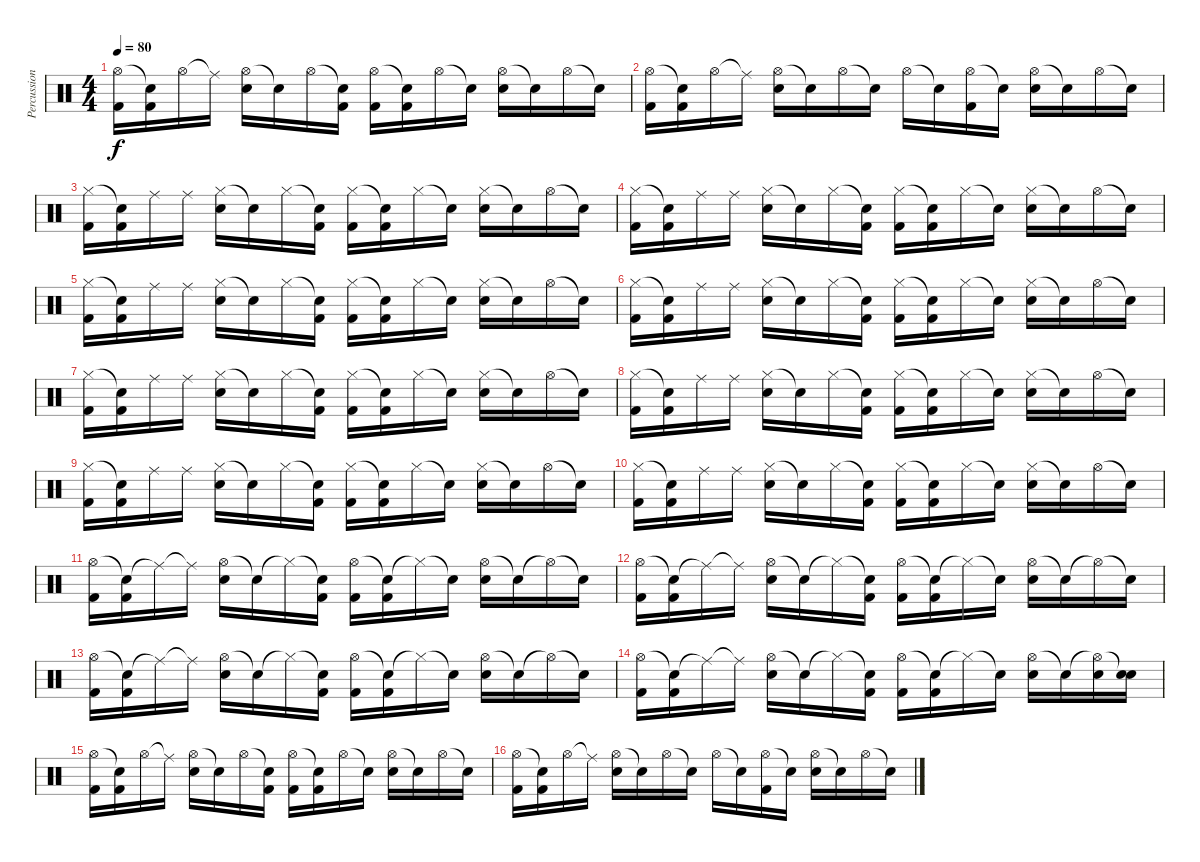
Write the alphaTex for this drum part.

\track ("Percussion" "Percussion") {instrument percussion}
\staff {score}
\articulation defaults
\ts (4 4)
\tempo 80
\clef neutral
\ks c
("Hi-Hat (open)" "Kick (hit) 2").16{dy f} ("Snare (hit)"{t} "Kick (hit) 2").16 "Hi-Hat (open)".16 "Ride (middle)"{t}.16 ("Hi-Hat (open)" "Electric Snare (hit)").16 "Snare (hit)"{t}.16 "Hi-Hat (open)".16 ("Snare (hit)"{t} "Kick (hit) 2").16 ("Hi-Hat (open)" "Kick (hit) 2").16 ("Snare (hit)"{t} "Kick (hit) 2").16 "Hi-Hat (open)".16 "Snare (hit)"{t}.16 ("Hi-Hat (open)" "Electric Snare (hit)").16 "Snare (hit)"{t}.16 "Hi-Hat (open)".16 "Snare (hit)"{t}.16 |
("Hi-Hat (open)" "Kick (hit) 2").16 ("Snare (hit)"{t} "Kick (hit) 2").16 "Hi-Hat (open)".16 "Ride (middle)"{t}.16 ("Hi-Hat (open)" "Electric Snare (hit)").16 "Snare (hit)"{t}.16 "Hi-Hat (open)".16 "Snare (hit)"{t}.16 "Hi-Hat (open)".16 "Snare (hit)"{t}.16 ("Hi-Hat (open)" "Kick (hit) 2").16 "Snare (hit)"{t}.16 ("Hi-Hat (open)" "Electric Snare (hit)").16 "Snare (hit)"{t}.16 "Hi-Hat (open)".16 "Snare (hit)"{t}.16 |
("Hi-Hat (closed)" "Kick (hit) 2").16 ("Snare (hit)"{t} "Kick (hit) 2").16 "Ride (middle)".16 "Ride (middle)".16 ("Hi-Hat (closed)" "Electric Snare (hit)").16 "Snare (hit)"{t}.16 "Hi-Hat (closed)".16 ("Snare (hit)"{t} "Kick (hit) 2").16 ("Hi-Hat (closed)" "Kick (hit) 2").16 ("Snare (hit)"{t} "Kick (hit) 2").16 "Hi-Hat (closed)".16 "Snare (hit)"{t}.16 ("Hi-Hat (closed)" "Electric Snare (hit)").16 "Snare (hit)"{t}.16 "Hi-Hat (open)".16 "Snare (hit)"{t}.16 |
("Hi-Hat (closed)" "Kick (hit) 2").16 ("Snare (hit)"{t} "Kick (hit) 2").16 "Ride (middle)".16 "Ride (middle)".16 ("Hi-Hat (closed)" "Electric Snare (hit)").16 "Snare (hit)"{t}.16 "Hi-Hat (closed)".16 ("Snare (hit)"{t} "Kick (hit) 2").16 ("Hi-Hat (closed)" "Kick (hit) 2").16 ("Snare (hit)"{t} "Kick (hit) 2").16 "Hi-Hat (closed)".16 "Snare (hit)"{t}.16 ("Hi-Hat (closed)" "Electric Snare (hit)").16 "Snare (hit)"{t}.16 "Hi-Hat (open)".16 "Snare (hit)"{t}.16 |
("Hi-Hat (closed)" "Kick (hit) 2").16 ("Snare (hit)"{t} "Kick (hit) 2").16 "Ride (middle)".16 "Ride (middle)".16 ("Hi-Hat (closed)" "Electric Snare (hit)").16 "Snare (hit)"{t}.16 "Hi-Hat (closed)".16 ("Snare (hit)"{t} "Kick (hit) 2").16 ("Hi-Hat (closed)" "Kick (hit) 2").16 ("Snare (hit)"{t} "Kick (hit) 2").16 "Hi-Hat (closed)".16 "Snare (hit)"{t}.16 ("Hi-Hat (closed)" "Electric Snare (hit)").16 "Snare (hit)"{t}.16 "Hi-Hat (open)".16 "Snare (hit)"{t}.16 |
("Hi-Hat (closed)" "Kick (hit) 2").16 ("Snare (hit)"{t} "Kick (hit) 2").16 "Ride (middle)".16 "Ride (middle)".16 ("Hi-Hat (closed)" "Electric Snare (hit)").16 "Snare (hit)"{t}.16 "Hi-Hat (closed)".16 ("Snare (hit)"{t} "Kick (hit) 2").16 ("Hi-Hat (closed)" "Kick (hit) 2").16 ("Snare (hit)"{t} "Kick (hit) 2").16 "Hi-Hat (closed)".16 "Snare (hit)"{t}.16 ("Hi-Hat (closed)" "Electric Snare (hit)").16 "Snare (hit)"{t}.16 "Hi-Hat (open)".16 "Snare (hit)"{t}.16 |
("Hi-Hat (closed)" "Kick (hit) 2").16 ("Snare (hit)"{t} "Kick (hit) 2").16 "Ride (middle)".16 "Ride (middle)".16 ("Hi-Hat (closed)" "Electric Snare (hit)").16 "Snare (hit)"{t}.16 "Hi-Hat (closed)".16 ("Snare (hit)"{t} "Kick (hit) 2").16 ("Hi-Hat (closed)" "Kick (hit) 2").16 ("Snare (hit)"{t} "Kick (hit) 2").16 "Hi-Hat (closed)".16 "Snare (hit)"{t}.16 ("Hi-Hat (closed)" "Electric Snare (hit)").16 "Snare (hit)"{t}.16 "Hi-Hat (open)".16 "Snare (hit)"{t}.16 |
("Hi-Hat (closed)" "Kick (hit) 2").16 ("Snare (hit)"{t} "Kick (hit) 2").16 "Ride (middle)".16 "Ride (middle)".16 ("Hi-Hat (closed)" "Electric Snare (hit)").16 "Snare (hit)"{t}.16 "Hi-Hat (closed)".16 ("Snare (hit)"{t} "Kick (hit) 2").16 ("Hi-Hat (closed)" "Kick (hit) 2").16 ("Snare (hit)"{t} "Kick (hit) 2").16 "Hi-Hat (closed)".16 "Snare (hit)"{t}.16 ("Hi-Hat (closed)" "Electric Snare (hit)").16 "Snare (hit)"{t}.16 "Hi-Hat (open)".16 "Snare (hit)"{t}.16 |
("Hi-Hat (closed)" "Kick (hit) 2").16 ("Snare (hit)"{t} "Kick (hit) 2").16 "Ride (middle)".16 "Ride (middle)".16 ("Hi-Hat (closed)" "Electric Snare (hit)").16 "Snare (hit)"{t}.16 "Hi-Hat (closed)".16 ("Snare (hit)"{t} "Kick (hit) 2").16 ("Hi-Hat (closed)" "Kick (hit) 2").16 ("Snare (hit)"{t} "Kick (hit) 2").16 "Hi-Hat (closed)".16 "Snare (hit)"{t}.16 ("Hi-Hat (closed)" "Electric Snare (hit)").16 "Snare (hit)"{t}.16 "Hi-Hat (open)".16 "Snare (hit)"{t}.16 |
("Hi-Hat (closed)" "Kick (hit) 2").16 ("Snare (hit)"{t} "Kick (hit) 2").16 "Ride (middle)".16 "Ride (middle)".16 ("Hi-Hat (closed)" "Electric Snare (hit)").16 "Snare (hit)"{t}.16 "Hi-Hat (closed)".16 ("Snare (hit)"{t} "Kick (hit) 2").16 ("Hi-Hat (closed)" "Kick (hit) 2").16 ("Snare (hit)"{t} "Kick (hit) 2").16 "Hi-Hat (closed)".16 "Snare (hit)"{t}.16 ("Hi-Hat (closed)" "Electric Snare (hit)").16 "Snare (hit)"{t}.16 "Hi-Hat (open)".16 "Snare (hit)"{t}.16 |
("Hi-Hat (open)" "Kick (hit) 2").16 ("Snare (hit)"{t} "Kick (hit) 2").16 "Ride (middle)"{t}.16 "Ride (middle)"{t}.16 ("Hi-Hat (open)" "Electric Snare (hit)").16 "Snare (hit)"{t}.16 "Hi-Hat (closed)"{t}.16 ("Snare (hit)"{t} "Kick (hit) 2").16 ("Hi-Hat (open)" "Kick (hit) 2").16 ("Snare (hit)"{t} "Kick (hit) 2").16 "Hi-Hat (closed)"{t}.16 "Snare (hit)"{t}.16 ("Hi-Hat (open)" "Electric Snare (hit)").16 "Snare (hit)"{t}.16 "Hi-Hat (open)"{t}.16 "Snare (hit)"{t}.16 |
("Hi-Hat (open)" "Kick (hit) 2").16 ("Snare (hit)"{t} "Kick (hit) 2").16 "Ride (middle)"{t}.16 "Ride (middle)"{t}.16 ("Hi-Hat (open)" "Electric Snare (hit)").16 "Snare (hit)"{t}.16 "Hi-Hat (closed)"{t}.16 ("Snare (hit)"{t} "Kick (hit) 2").16 ("Hi-Hat (open)" "Kick (hit) 2").16 ("Snare (hit)"{t} "Kick (hit) 2").16 "Hi-Hat (closed)"{t}.16 "Snare (hit)"{t}.16 ("Hi-Hat (open)" "Electric Snare (hit)").16 "Snare (hit)"{t}.16 "Hi-Hat (open)"{t}.16 "Snare (hit)"{t}.16 |
("Hi-Hat (open)" "Kick (hit) 2").16 ("Snare (hit)"{t} "Kick (hit) 2").16 "Ride (middle)"{t}.16 "Ride (middle)"{t}.16 ("Hi-Hat (open)" "Electric Snare (hit)").16 "Snare (hit)"{t}.16 "Hi-Hat (closed)"{t}.16 ("Snare (hit)"{t} "Kick (hit) 2").16 ("Hi-Hat (open)" "Kick (hit) 2").16 ("Snare (hit)"{t} "Kick (hit) 2").16 "Hi-Hat (closed)"{t}.16 "Snare (hit)"{t}.16 ("Hi-Hat (open)" "Electric Snare (hit)").16 "Snare (hit)"{t}.16 "Hi-Hat (open)"{t}.16 "Snare (hit)"{t}.16 |
("Hi-Hat (open)" "Kick (hit) 2").16 ("Snare (hit)"{t} "Kick (hit) 2").16 "Ride (middle)"{t}.16 "Ride (middle)"{t}.16 ("Hi-Hat (open)" "Electric Snare (hit)").16 "Snare (hit)"{t}.16 "Hi-Hat (closed)"{t}.16 ("Snare (hit)"{t} "Kick (hit) 2").16 ("Hi-Hat (open)" "Kick (hit) 2").16 ("Snare (hit)"{t} "Kick (hit) 2").16 "Hi-Hat (closed)"{t}.16 "Snare (hit)"{t}.16 ("Hi-Hat (open)" "Electric Snare (hit)").16 "Snare (hit)"{t}.16 ("Hi-Hat (open)"{t} "Electric Snare (hit)").16 ("Snare (hit)"{t} "Electric Snare (hit)").16 |
("Hi-Hat (open)" "Kick (hit) 2").16 ("Snare (hit)"{t} "Kick (hit) 2").16 "Hi-Hat (open)".16 "Ride (middle)"{t}.16 ("Hi-Hat (open)" "Electric Snare (hit)").16 "Snare (hit)"{t}.16 "Hi-Hat (open)".16 ("Snare (hit)"{t} "Kick (hit) 2").16 ("Hi-Hat (open)" "Kick (hit) 2").16 ("Snare (hit)"{t} "Kick (hit) 2").16 "Hi-Hat (open)".16 "Snare (hit)"{t}.16 ("Hi-Hat (open)" "Electric Snare (hit)").16 "Snare (hit)"{t}.16 "Hi-Hat (open)".16 "Snare (hit)"{t}.16 |
("Hi-Hat (open)" "Kick (hit) 2").16 ("Snare (hit)"{t} "Kick (hit) 2").16 "Hi-Hat (open)".16 "Ride (middle)"{t}.16 ("Hi-Hat (open)" "Electric Snare (hit)").16 "Snare (hit)"{t}.16 "Hi-Hat (open)".16 "Snare (hit)"{t}.16 "Hi-Hat (open)".16 "Snare (hit)"{t}.16 ("Hi-Hat (open)" "Kick (hit) 2").16 "Snare (hit)"{t}.16 ("Hi-Hat (open)" "Electric Snare (hit)").16 "Snare (hit)"{t}.16 "Hi-Hat (open)".16 "Snare (hit)"{t}.16
